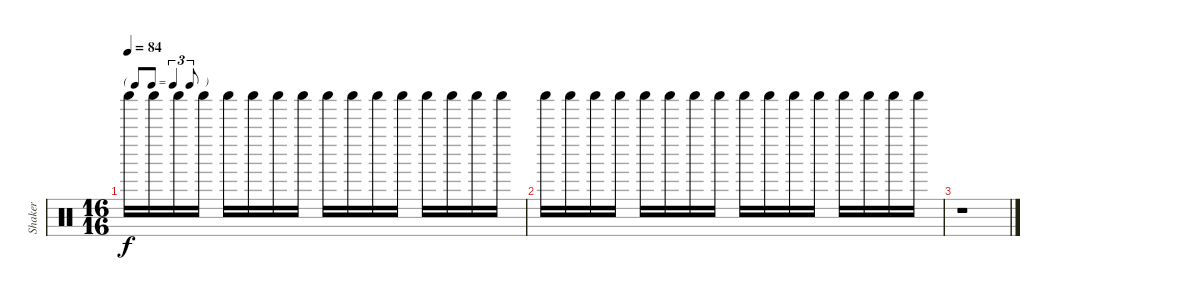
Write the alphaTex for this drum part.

\track ("Shaker" "Shaker") {instrument percussion}
\staff {score}
\articulation defaults
\ts (16 16)
\tf triplet8th
\tempo 84
\clef neutral
\ks c "Shaker (hit)".16{dy f} "Shaker (hit)".16 "Shaker (hit)".16 "Shaker (hit)".16 "Shaker (hit)".16 "Shaker (hit)".16 "Shaker (hit)".16 "Shaker (hit)".16 "Shaker (hit)".16 "Shaker (hit)".16 "Shaker (hit)".16 "Shaker (hit)".16 "Shaker (hit)".16 "Shaker (hit)".16 "Shaker (hit)".16 "Shaker (hit)".16
|
"Shaker (hit)".16 "Shaker (hit)".16 "Shaker (hit)".16 "Shaker (hit)".16 "Shaker (hit)".16 "Shaker (hit)".16 "Shaker (hit)".16 "Shaker (hit)".16 "Shaker (hit)".16 "Shaker (hit)".16 "Shaker (hit)".16 "Shaker (hit)".16 "Shaker (hit)".16 "Shaker (hit)".16 "Shaker (hit)".16 "Shaker (hit)".16 |
r.1
